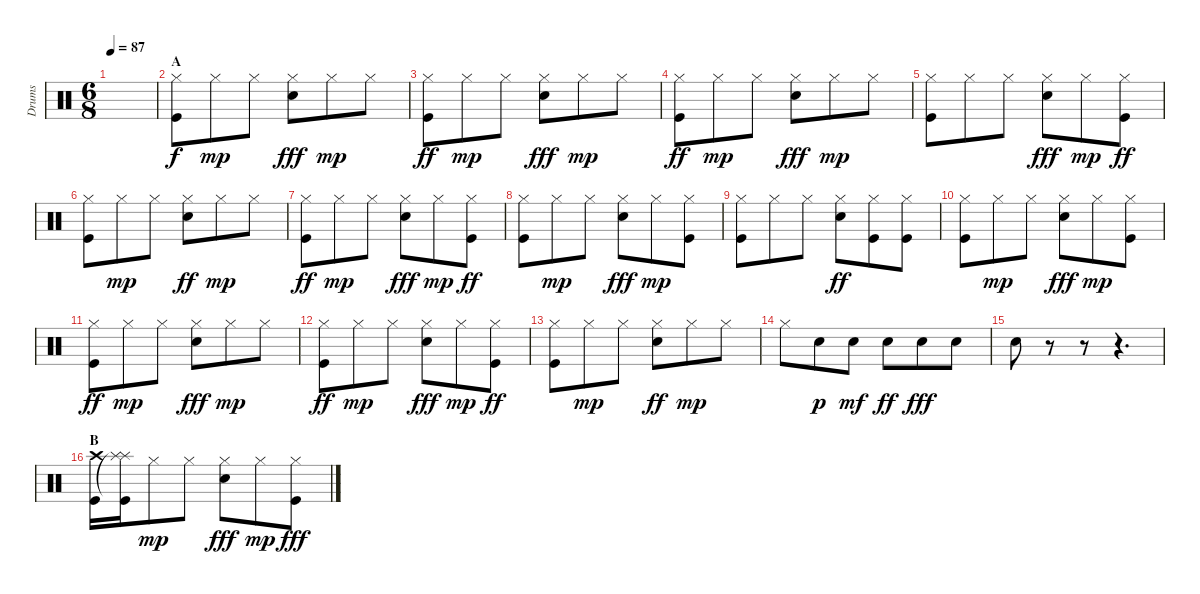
\track ("Drums" "Drums") {instrument percussion}
\staff {score}
\articulation defaults
\ts (6 8)
\tempo 87
\clef neutral
\ks c
|
\section ("" "A")
("Hi-Hat (closed)" "Kick (hit)").8 "Hi-Hat (closed)".8{dy mp} "Hi-Hat (closed)".8 ("Hi-Hat (closed)" "Snare (hit) 2").8{dy fff} "Hi-Hat (closed)".8{dy mp} "Hi-Hat (closed)".8 |
("Hi-Hat (closed)" "Kick (hit)").8{dy ff} "Hi-Hat (closed)".8{dy mp} "Hi-Hat (closed)".8 ("Hi-Hat (closed)" "Snare (hit) 2").8{dy fff} "Hi-Hat (closed)".8{dy mp} "Hi-Hat (closed)".8 |
("Hi-Hat (closed)" "Kick (hit)").8{dy ff} "Hi-Hat (closed)".8{dy mp} "Hi-Hat (closed)".8 ("Hi-Hat (closed)" "Snare (hit) 2").8{dy fff} "Hi-Hat (closed)".8{dy mp} "Hi-Hat (closed)".8 |
("Hi-Hat (closed)" "Kick (hit)").8 "Hi-Hat (closed)".8 "Hi-Hat (closed)".8 ("Hi-Hat (closed)" "Snare (hit) 2").8{dy fff} "Hi-Hat (closed)".8{dy mp} ("Hi-Hat (closed)" "Kick (hit)").8{dy ff} |
("Hi-Hat (closed)" "Kick (hit)").8 "Hi-Hat (closed)".8{dy mp} "Hi-Hat (closed)".8 ("Hi-Hat (closed)" "Snare (hit) 2").8{dy ff} "Hi-Hat (closed)".8{dy mp} "Hi-Hat (closed)".8 |
("Hi-Hat (closed)" "Kick (hit)").8{dy ff} "Hi-Hat (closed)".8{dy mp} "Hi-Hat (closed)".8 ("Hi-Hat (closed)" "Snare (hit) 2").8{dy fff} "Hi-Hat (closed)".8{dy mp} ("Hi-Hat (closed)" "Kick (hit)").8{dy ff} |
("Hi-Hat (closed)" "Kick (hit)").8 "Hi-Hat (closed)".8{dy mp} "Hi-Hat (closed)".8 ("Hi-Hat (closed)" "Snare (hit) 2").8{dy fff} "Hi-Hat (closed)".8{dy mp} ("Hi-Hat (closed)" "Kick (hit)").8 |
("Hi-Hat (closed)" "Kick (hit)").8 "Hi-Hat (closed)".8 "Hi-Hat (closed)".8 ("Hi-Hat (closed)" "Snare (hit) 2").8{dy ff} ("Hi-Hat (closed)" "Kick (hit)").8 ("Hi-Hat (closed)" "Kick (hit)").8 |
("Hi-Hat (closed)" "Kick (hit)").8 "Hi-Hat (closed)".8{dy mp} "Hi-Hat (closed)".8 ("Hi-Hat (closed)" "Snare (hit) 2").8{dy fff} "Hi-Hat (closed)".8{dy mp} ("Hi-Hat (closed)" "Kick (hit)").8 |
("Hi-Hat (closed)" "Kick (hit)").8{dy ff} "Hi-Hat (closed)".8{dy mp} "Hi-Hat (closed)".8 ("Hi-Hat (closed)" "Snare (hit) 2").8{dy fff} "Hi-Hat (closed)".8{dy mp} "Hi-Hat (closed)".8 |
("Hi-Hat (closed)" "Kick (hit)").8{dy ff} "Hi-Hat (closed)".8{dy mp} "Hi-Hat (closed)".8 ("Hi-Hat (closed)" "Snare (hit) 2").8{dy fff} "Hi-Hat (closed)".8{dy mp} ("Hi-Hat (closed)" "Kick (hit)").8{dy ff} |
("Hi-Hat (closed)" "Kick (hit)").8 "Hi-Hat (closed)".8{dy mp} "Hi-Hat (closed)".8 ("Hi-Hat (closed)" "Snare (hit) 2").8{dy ff} "Hi-Hat (closed)".8{dy mp} "Hi-Hat (closed)".8 |
"Hi-Hat (closed)".8 "Snare (hit) 2".8{dy p} "Snare (hit) 2".8{dy mf} "Snare (hit) 2".8{dy ff} "Snare (hit) 2".8{dy fff} "Snare (hit) 2".8 |
"Snare (hit) 2".8 r.8 r.8 r.4{d} |
\section ("" "B")
("Crash high (hit)" "Kick (hit)").16 ("Splash (hit)" "Splash (hit)"{t} "Kick (hit)").16 "Hi-Hat (closed)".8{dy mp} "Hi-Hat (closed)".8 ("Hi-Hat (closed)" "Snare (hit) 2").8{dy fff} "Hi-Hat (closed)".8{dy mp} ("Hi-Hat (closed)" "Kick (hit)").8{dy fff}
